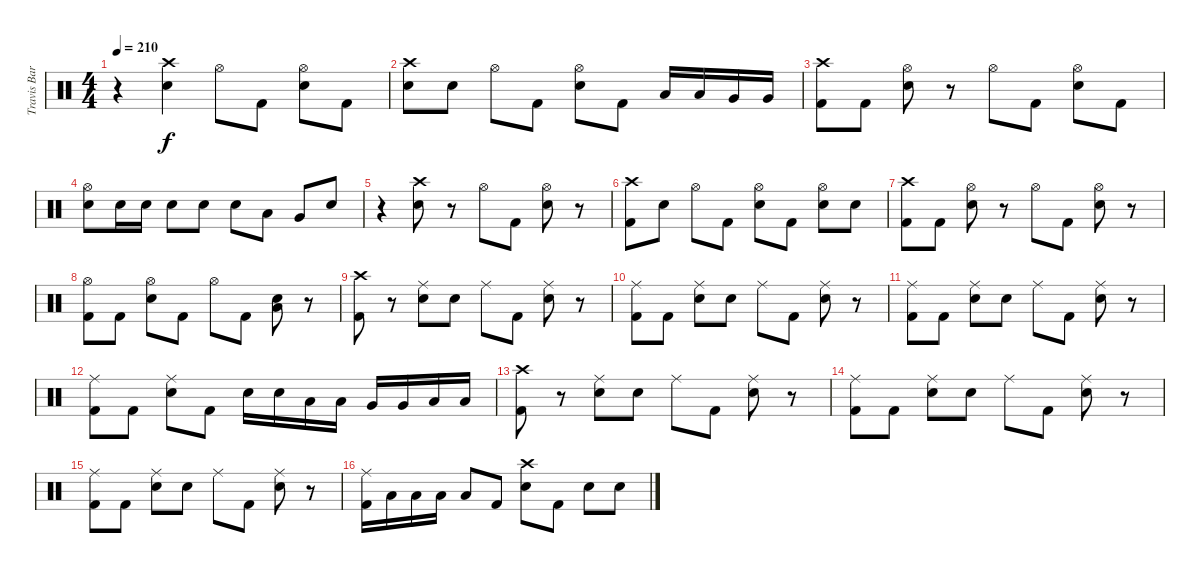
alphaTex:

\track ("Travis Barker" "Travis Bar") {instrument percussion}
\staff {score}
\articulation defaults
\ts (4 4)
\tempo 210
\clef neutral
\ks c
r.4{dy f} ("Crash high (hit)" "Electric Snare (hit)").4 "Hi-Hat (open)".8 "Kick (hit) 2".8 ("Hi-Hat (open)" "Electric Snare (hit)").8 "Kick (hit) 2".8 |
("Crash high (hit)" "Electric Snare (hit)").8 "Electric Snare (hit)".8 "Hi-Hat (open)".8 "Kick (hit) 2".8 ("Hi-Hat (open)" "Electric Snare (hit)").8 "Kick (hit) 2".8 "Low Tom (hit)".16 "Low Tom (hit)".16 "Very Low Tom (hit)".16 "Very Low Tom (hit)".16 |
("Crash high (hit)" "Kick (hit) 2").8 "Kick (hit) 2".8 ("Hi-Hat (open)" "Electric Snare (hit)").8 r.8 "Hi-Hat (open)".8 "Kick (hit) 2".8 ("Hi-Hat (open)" "Electric Snare (hit)").8 "Kick (hit) 2".8 |
("Hi-Hat (open)" "Electric Snare (hit)").8 "Electric Snare (hit)".16 "Electric Snare (hit)".16 "Electric Snare (hit)".8 "Electric Snare (hit)".8 "Electric Snare (hit)".8 "Low Tom (hit)".8 "Very Low Tom (hit)".8 "Electric Snare (hit)".8 |
r.4 ("Crash high (hit)" "Electric Snare (hit)").8 r.8 "Hi-Hat (open)".8 "Kick (hit) 2".8 ("Hi-Hat (open)" "Electric Snare (hit)").8 r.8 |
("Crash high (hit)" "Kick (hit) 2").8 "Electric Snare (hit)".8 "Hi-Hat (open)".8 "Kick (hit) 2".8 ("Hi-Hat (open)" "Electric Snare (hit)").8 "Kick (hit) 2".8 ("Hi-Hat (open)" "Electric Snare (hit)").8 "Electric Snare (hit)".8 |
("Crash high (hit)" "Kick (hit) 2").8 "Kick (hit) 2".8 ("Hi-Hat (open)" "Electric Snare (hit)").8 r.8 "Hi-Hat (open)".8 "Kick (hit) 2".8 ("Hi-Hat (open)" "Electric Snare (hit)").8 r.8 |
("Hi-Hat (open)" "Kick (hit) 2").8 "Kick (hit) 2".8 ("Hi-Hat (open)" "Electric Snare (hit)").8 "Kick (hit) 2".8 "Hi-Hat (open)".8 "Kick (hit) 2".8 ("Electric Snare (hit)" "Low Tom (hit)").8 r.8 |
("Crash high (hit)" "Kick (hit) 2").8 r.8 ("Ride (middle)" "Electric Snare (hit)").8 "Electric Snare (hit)".8 "Ride (middle)".8 "Kick (hit) 2".8 ("Ride (middle)" "Electric Snare (hit)").8 r.8 |
("Ride (middle)" "Kick (hit) 2").8 "Kick (hit) 2".8 ("Ride (middle)" "Electric Snare (hit)").8 "Electric Snare (hit)".8 "Ride (middle)".8 "Kick (hit) 2".8 ("Ride (middle)" "Electric Snare (hit)").8 r.8 |
("Ride (middle)" "Kick (hit) 2").8 "Kick (hit) 2".8 ("Ride (middle)" "Electric Snare (hit)").8 "Electric Snare (hit)".8 "Ride (middle)".8 "Kick (hit) 2".8 ("Ride (middle)" "Electric Snare (hit)").8 r.8 |
("Ride (middle)" "Kick (hit) 2").8 "Kick (hit) 2".8 ("Ride (middle)" "Electric Snare (hit)").8 "Kick (hit) 2".8 "Electric Snare (hit)".16 "Electric Snare (hit)".16 "Low Tom (hit)".16 "Low Tom (hit)".16 "Very Low Tom (hit)".16 "Very Low Tom (hit)".16 "Low Floor Tom (hit)".16 "Low Floor Tom (hit)".16 |
("Crash high (hit)" "Kick (hit) 2").8 r.8 ("Ride (middle)" "Electric Snare (hit)").8 "Electric Snare (hit)".8 "Ride (middle)".8 "Kick (hit) 2".8 ("Ride (middle)" "Electric Snare (hit)").8 r.8 |
("Ride (middle)" "Kick (hit) 2").8 "Kick (hit) 2".8 ("Ride (middle)" "Electric Snare (hit)").8 "Electric Snare (hit)".8 "Ride (middle)".8 "Kick (hit) 2".8 ("Ride (middle)" "Electric Snare (hit)").8 r.8 |
("Ride (middle)" "Kick (hit) 2").8 "Kick (hit) 2".8 ("Ride (middle)" "Electric Snare (hit)").8 "Electric Snare (hit)".8 "Ride (middle)".8 "Kick (hit) 2".8 ("Ride (middle)" "Electric Snare (hit)").8 r.8 |
("Ride (middle)" "Kick (hit) 2").16 "Low Tom (hit)".16 "Low Tom (hit)".16 "Low Tom (hit)".16 "Low Tom (hit)".8 "Kick (hit) 2".8 ("Crash high (hit)" "Electric Snare (hit)").8 "Kick (hit) 2".8 "Electric Snare (hit)".8 "Electric Snare (hit)".8
